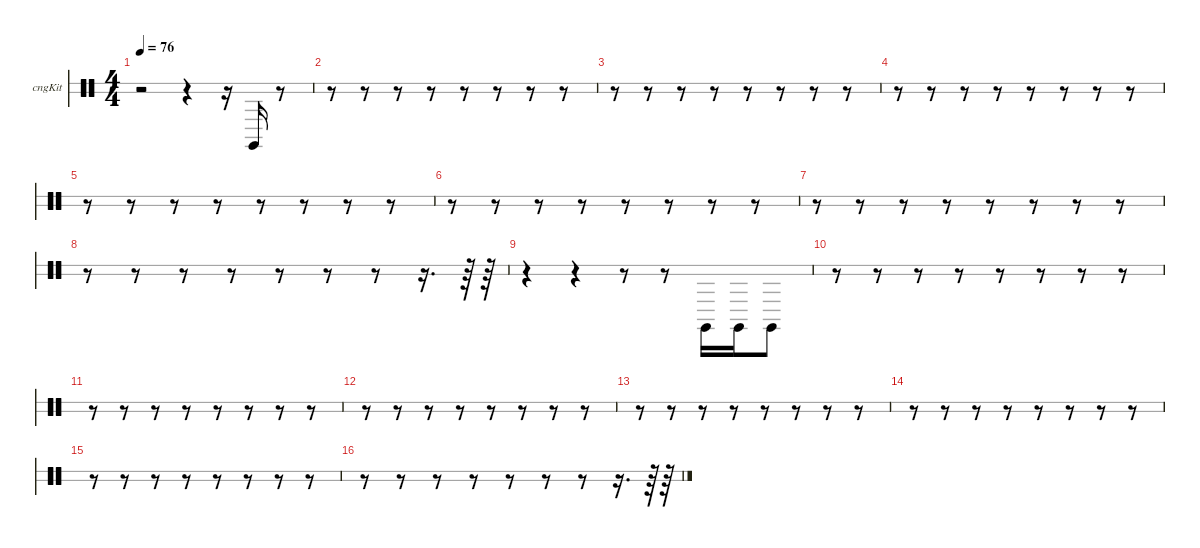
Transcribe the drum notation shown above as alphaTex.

\hideDynamics
\bracketExtendMode nobrackets
\firstSystemTrackNameOrientation horizontal
\otherSystemsTrackNameOrientation horizontal
\track ("Congas" "cngKit") {instrument percussion}
\staff {score 2}
\articulation defaults
\ts (4 4)
\beaming (8 2 2 2 2)
\tempo 76
\clef neutral
\ks c
r.2{dy f beam Up} r.4{beam Up} r.16{beam Up} "Conga high (hit)".16{beam Down} r.8{beam Down} |
r.8{beam Down} r.8{beam Down} r.8{beam Down} r.8{beam Down} r.8{beam Down} r.8{beam Down} r.8{beam Down} r.8{beam Down} |
r.8{beam Down} r.8{beam Down} r.8{beam Down} r.8{beam Down} r.8{beam Down} r.8{beam Down} r.8{beam Down} r.8{beam Down} |
r.8{beam Down} r.8{beam Down} r.8{beam Down} r.8{beam Down} r.8{beam Down} r.8{beam Down} r.8{beam Down} r.8{beam Down} |
r.8{beam Down} r.8{beam Down} r.8{beam Down} r.8{beam Down} r.8{beam Down} r.8{beam Down} r.8{beam Down} r.8{beam Down} |
r.8{beam Down} r.8{beam Down} r.8{beam Down} r.8{beam Down} r.8{beam Down} r.8{beam Down} r.8{beam Down} r.8{beam Down} |
r.8{beam Down} r.8{beam Down} r.8{beam Down} r.8{beam Down} r.8{beam Down} r.8{beam Down} r.8{beam Down} r.8{beam Down} |
r.8{beam Down} r.8{beam Down} r.8{beam Down} r.8{beam Down} r.8{beam Down} r.8{beam Down} r.8{beam Down} r.16{d beam Down} r.64{beam Down} r.64{beam Down} |
r.4{beam Down} r.4{beam Down} r.8{beam Down} r.8{beam Down} "Conga high (hit)".16{beam Down} "Conga high (hit)".16{beam Down} "Conga high (hit)".8{beam Down} |
r.8{beam Down} r.8{beam Down} r.8{beam Down} r.8{beam Down} r.8{beam Down} r.8{beam Down} r.8{beam Down} r.8{beam Down} |
r.8{beam Down} r.8{beam Down} r.8{beam Down} r.8{beam Down} r.8{beam Down} r.8{beam Down} r.8{beam Down} r.8{beam Down} |
r.8{beam Down} r.8{beam Down} r.8{beam Down} r.8{beam Down} r.8{beam Down} r.8{beam Down} r.8{beam Down} r.8{beam Down} |
r.8{beam Down} r.8{beam Down} r.8{beam Down} r.8{beam Down} r.8{beam Down} r.8{beam Down} r.8{beam Down} r.8{beam Down} |
r.8{beam Down} r.8{beam Down} r.8{beam Down} r.8{beam Down} r.8{beam Down} r.8{beam Down} r.8{beam Down} r.8{beam Down} |
r.8{beam Down} r.8{beam Down} r.8{beam Down} r.8{beam Down} r.8{beam Down} r.8{beam Down} r.8{beam Down} r.8{beam Down} |
r.8{beam Down} r.8{beam Down} r.8{beam Down} r.8{beam Down} r.8{beam Down} r.8{beam Down} r.8{beam Down} r.16{d beam Down} r.64{beam Down} r.64{beam Down}
